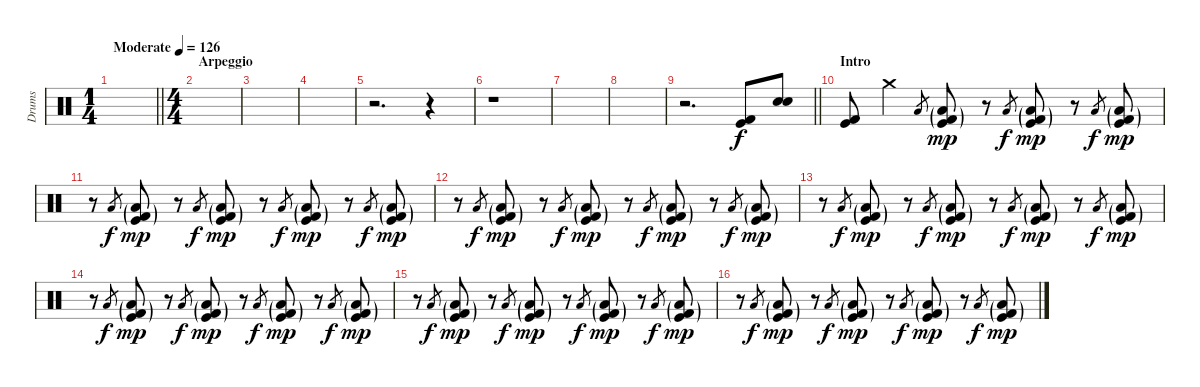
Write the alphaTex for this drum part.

\track ("Drums" "Drums") {instrument percussion}
\staff {score}
\articulation defaults
\ts (1 4)
\tempo (126 "Moderate")
\clef neutral
\barLineRight lightlight
\ks c
|
\ts (4 4)
\section ("" "Arpeggio")
|
|
|
r.2{d} r.4 |
r.1 |
|
|
\barLineRight lightlight
r.2{d} ("Kick (hit)" "Kick (hit) 2").8 ("Snare (hit) 2" "Electric Snare (hit)").8 |
\section ("" "Intro")
("Kick (hit)" "Kick (hit) 2").8 "Crash medium (hit)".4 "Low Floor Tom (hit)".8{gr} ("Kick (hit)"{g} "Kick (hit) 2"{g} "Low Floor Tom (hit)"{g}).8{dy mp volume 7} r.8 "Low Floor Tom (hit)".8{gr dy f} ("Kick (hit)"{g} "Kick (hit) 2"{g} "Low Floor Tom (hit)"{g}).8{dy mp} r.8 "Low Floor Tom (hit)".8{gr dy f} ("Kick (hit)"{g} "Kick (hit) 2"{g} "Low Floor Tom (hit)"{g}).8{dy mp} |
r.8 "Low Floor Tom (hit)".8{gr dy f} ("Kick (hit)"{g} "Kick (hit) 2"{g} "Low Floor Tom (hit)"{g}).8{dy mp} r.8 "Low Floor Tom (hit)".8{gr dy f} ("Kick (hit)"{g} "Kick (hit) 2"{g} "Low Floor Tom (hit)"{g}).8{dy mp} r.8 "Low Floor Tom (hit)".8{gr dy f} ("Kick (hit)"{g} "Kick (hit) 2"{g} "Low Floor Tom (hit)"{g}).8{dy mp} r.8 "Low Floor Tom (hit)".8{gr dy f} ("Kick (hit)"{g} "Kick (hit) 2"{g} "Low Floor Tom (hit)"{g}).8{dy mp} |
r.8 "Low Floor Tom (hit)".8{gr dy f} ("Kick (hit)"{g} "Kick (hit) 2"{g} "Low Floor Tom (hit)"{g}).8{dy mp} r.8 "Low Floor Tom (hit)".8{gr dy f} ("Kick (hit)"{g} "Kick (hit) 2"{g} "Low Floor Tom (hit)"{g}).8{dy mp} r.8 "Low Floor Tom (hit)".8{gr dy f} ("Kick (hit)"{g} "Kick (hit) 2"{g} "Low Floor Tom (hit)"{g}).8{dy mp} r.8 "Low Floor Tom (hit)".8{gr dy f} ("Kick (hit)"{g} "Kick (hit) 2"{g} "Low Floor Tom (hit)"{g}).8{dy mp} |
r.8 "Low Floor Tom (hit)".8{gr dy f} ("Kick (hit)"{g} "Kick (hit) 2"{g} "Low Floor Tom (hit)"{g}).8{dy mp} r.8 "Low Floor Tom (hit)".8{gr dy f} ("Kick (hit)"{g} "Kick (hit) 2"{g} "Low Floor Tom (hit)"{g}).8{dy mp} r.8 "Low Floor Tom (hit)".8{gr dy f} ("Kick (hit)"{g} "Kick (hit) 2"{g} "Low Floor Tom (hit)"{g}).8{dy mp} r.8 "Low Floor Tom (hit)".8{gr dy f} ("Kick (hit)"{g} "Kick (hit) 2"{g} "Low Floor Tom (hit)"{g}).8{dy mp} |
r.8 "Low Floor Tom (hit)".8{gr dy f} ("Kick (hit)"{g} "Kick (hit) 2"{g} "Low Floor Tom (hit)"{g}).8{dy mp} r.8 "Low Floor Tom (hit)".8{gr dy f} ("Kick (hit)"{g} "Kick (hit) 2"{g} "Low Floor Tom (hit)"{g}).8{dy mp} r.8 "Low Floor Tom (hit)".8{gr dy f} ("Kick (hit)"{g} "Kick (hit) 2"{g} "Low Floor Tom (hit)"{g}).8{dy mp} r.8 "Low Floor Tom (hit)".8{gr dy f} ("Kick (hit)"{g} "Kick (hit) 2"{g} "Low Floor Tom (hit)"{g}).8{dy mp} |
r.8 "Low Floor Tom (hit)".8{gr dy f} ("Kick (hit)"{g} "Kick (hit) 2"{g} "Low Floor Tom (hit)"{g}).8{dy mp} r.8 "Low Floor Tom (hit)".8{gr dy f} ("Kick (hit)"{g} "Kick (hit) 2"{g} "Low Floor Tom (hit)"{g}).8{dy mp} r.8 "Low Floor Tom (hit)".8{gr dy f} ("Kick (hit)"{g} "Kick (hit) 2"{g} "Low Floor Tom (hit)"{g}).8{dy mp} r.8 "Low Floor Tom (hit)".8{gr dy f} ("Kick (hit)"{g} "Kick (hit) 2"{g} "Low Floor Tom (hit)"{g}).8{dy mp} |
r.8 "Low Floor Tom (hit)".8{gr dy f} ("Kick (hit)"{g} "Kick (hit) 2"{g} "Low Floor Tom (hit)"{g}).8{dy mp} r.8 "Low Floor Tom (hit)".8{gr dy f} ("Kick (hit)"{g} "Kick (hit) 2"{g} "Low Floor Tom (hit)"{g}).8{dy mp} r.8 "Low Floor Tom (hit)".8{gr dy f} ("Kick (hit)"{g} "Kick (hit) 2"{g} "Low Floor Tom (hit)"{g}).8{dy mp} r.8 "Low Floor Tom (hit)".8{gr dy f} ("Kick (hit)"{g} "Kick (hit) 2"{g} "Low Floor Tom (hit)"{g}).8{dy mp}
